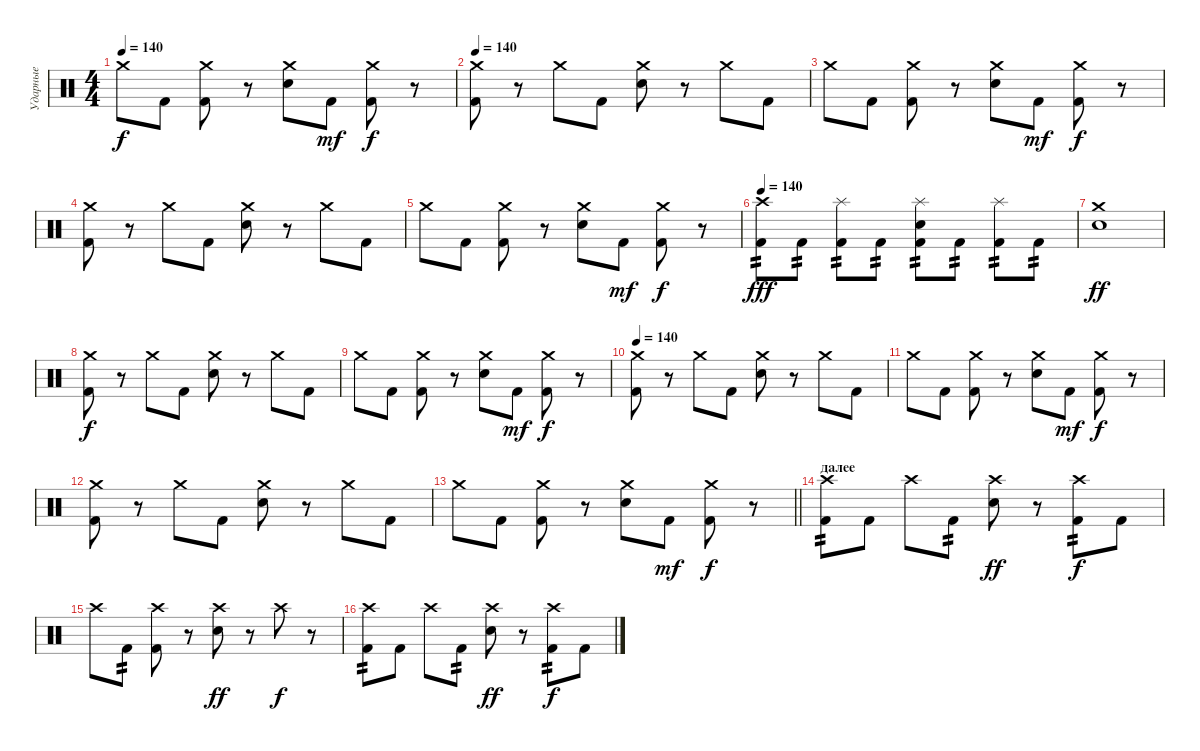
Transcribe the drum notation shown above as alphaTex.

\track ("Ударные" "Ударные") {instrument percussion}
\staff {score}
\articulation defaults
\ts (4 4)
\tempo 140
\clef neutral
\ks c "Crash medium (hit)".8{dy f} "Kick (hit) 2".8
("Crash medium (hit)" "Kick (hit) 2").8 r.8 ("Crash medium (hit)" "Snare (hit) 2").8 "Kick (hit) 2".8{dy mf} ("Crash medium (hit)" "Kick (hit) 2").8{dy f} r.8 |
\tempo 140
("Crash medium (hit)" "Kick (hit) 2").8 r.8 "Crash medium (hit)".8 "Kick (hit) 2".8 ("Crash medium (hit)" "Snare (hit) 2").8 r.8 "Crash medium (hit)".8 "Kick (hit) 2".8 |
"Crash medium (hit)".8 "Kick (hit) 2".8 ("Crash medium (hit)" "Kick (hit) 2").8 r.8 ("Crash medium (hit)" "Snare (hit) 2").8 "Kick (hit) 2".8{dy mf} ("Crash medium (hit)" "Kick (hit) 2").8{dy f} r.8 |
("Crash medium (hit)" "Kick (hit) 2").8 r.8 "Crash medium (hit)".8 "Kick (hit) 2".8 ("Crash medium (hit)" "Snare (hit) 2").8 r.8 "Crash medium (hit)".8 "Kick (hit) 2".8 |
"Crash medium (hit)".8 "Kick (hit) 2".8 ("Crash medium (hit)" "Kick (hit) 2").8 r.8 ("Crash medium (hit)" "Snare (hit) 2").8 "Kick (hit) 2".8{dy mf} ("Crash medium (hit)" "Kick (hit) 2").8{dy f} r.8 |
\tempo 140
("Crash high (hit)" "Kick (hit) 2").8{tp 2 dy fff} "Kick (hit) 2".8{tp 2} ("Splash (hit)" "Kick (hit) 2").8{tp 2} "Kick (hit) 2".8{tp 2} ("Splash (hit)" "Snare (hit) 2" "Kick (hit) 2").8{tp 2} "Kick (hit) 2".8{tp 2} ("Splash (hit)" "Kick (hit) 2").8{tp 2} "Kick (hit) 2".8{tp 2} |
("Crash medium (hit)" "Snare (hit) 2").1{dy ff} |
("Crash medium (hit)" "Kick (hit) 2").8{dy f} r.8 "Crash medium (hit)".8 "Kick (hit) 2".8 ("Crash medium (hit)" "Snare (hit) 2").8 r.8 "Crash medium (hit)".8 "Kick (hit) 2".8 |
"Crash medium (hit)".8 "Kick (hit) 2".8 ("Crash medium (hit)" "Kick (hit) 2").8 r.8 ("Crash medium (hit)" "Snare (hit) 2").8 "Kick (hit) 2".8{dy mf} ("Crash medium (hit)" "Kick (hit) 2").8{dy f} r.8 |
\tempo 140
("Crash medium (hit)" "Kick (hit) 2").8 r.8 "Crash medium (hit)".8 "Kick (hit) 2".8 ("Crash medium (hit)" "Snare (hit) 2").8 r.8 "Crash medium (hit)".8 "Kick (hit) 2".8 |
"Crash medium (hit)".8 "Kick (hit) 2".8 ("Crash medium (hit)" "Kick (hit) 2").8 r.8 ("Crash medium (hit)" "Snare (hit) 2").8 "Kick (hit) 2".8{dy mf} ("Crash medium (hit)" "Kick (hit) 2").8{dy f} r.8 |
("Crash medium (hit)" "Kick (hit) 2").8 r.8 "Crash medium (hit)".8 "Kick (hit) 2".8 ("Crash medium (hit)" "Snare (hit) 2").8 r.8 "Crash medium (hit)".8 "Kick (hit) 2".8 |
\barLineRight lightlight "Crash medium (hit)".8 "Kick (hit) 2".8
("Crash medium (hit)" "Kick (hit) 2").8 r.8 ("Crash medium (hit)" "Snare (hit) 2").8 "Kick (hit) 2".8{dy mf} ("Crash medium (hit)" "Kick (hit) 2").8{dy f} r.8 |
\section ("" "далее")
("Crash high (hit)" "Kick (hit) 2").8{tp 2} "Kick (hit) 2".8 "Crash high (hit)".8 "Kick (hit) 2".8{tp 2} ("Crash high (hit)" "Electric Snare (hit)").8{dy ff} r.8 ("Crash high (hit)" "Kick (hit) 2").8{tp 2 dy f} "Kick (hit) 2".8 |
"Crash high (hit)".8 "Kick (hit) 2".8{tp 2} ("Crash high (hit)" "Kick (hit) 2").8 r.8 ("Crash high (hit)" "Electric Snare (hit)").8{dy ff} r.8 "Crash high (hit)".8{dy f} r.8 |
("Crash high (hit)" "Kick (hit) 2").8{tp 2} "Kick (hit) 2".8 "Crash high (hit)".8 "Kick (hit) 2".8{tp 2} ("Crash high (hit)" "Electric Snare (hit)").8{dy ff} r.8 ("Crash high (hit)" "Kick (hit) 2").8{tp 2 dy f} "Kick (hit) 2".8
